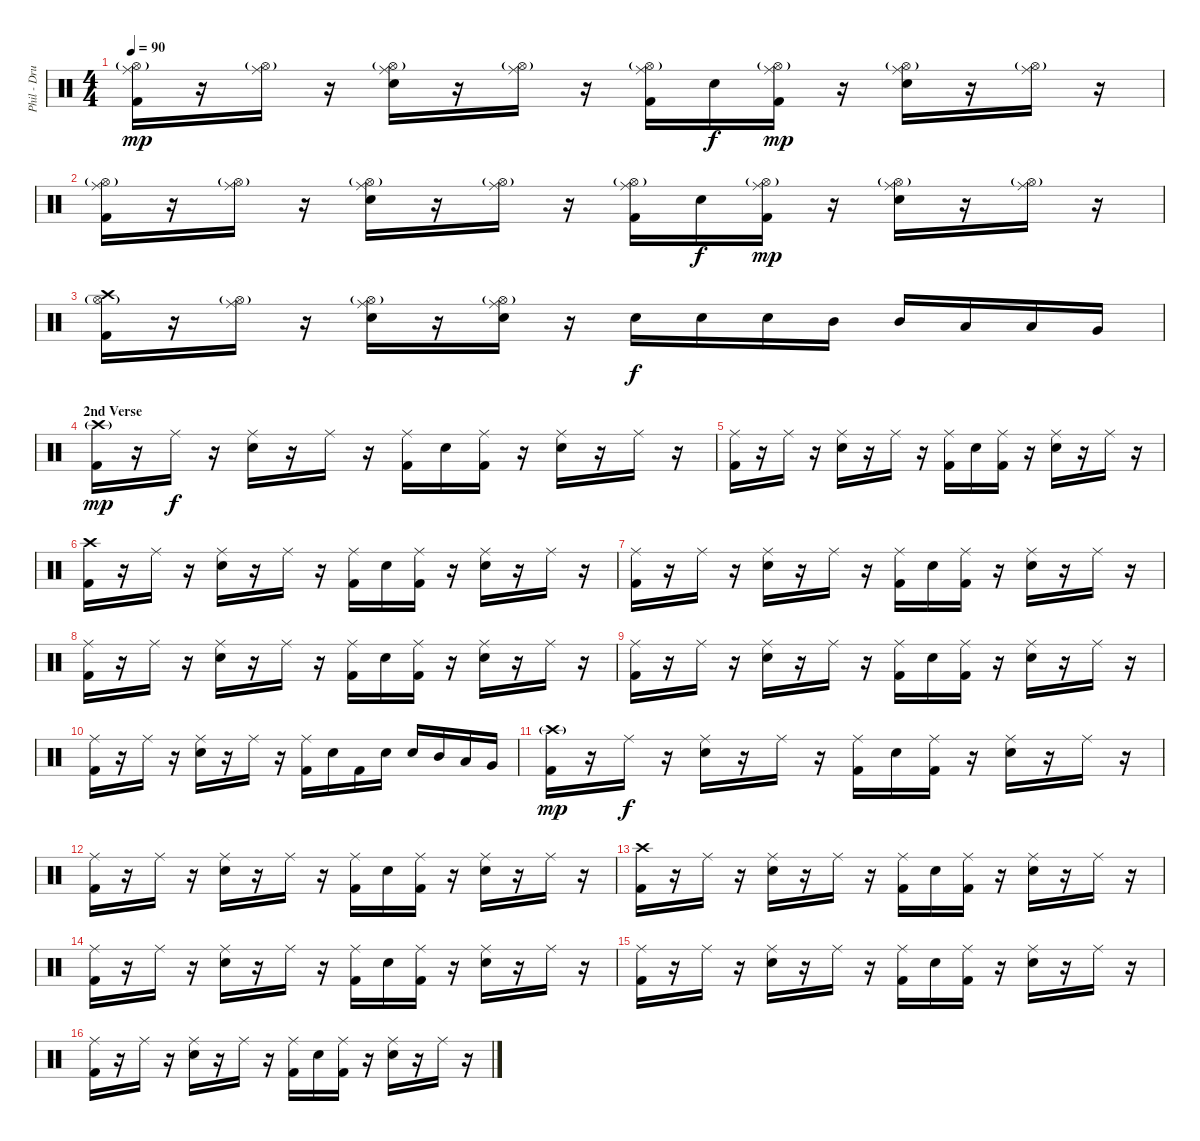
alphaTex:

\track ("Phil - Drums" "Phil - Dru") {instrument percussion}
\staff {score}
\articulation defaults
\ts (4 4)
\tempo 90
\clef neutral
\ks c
("Ride (middle)" "Kick (hit) 2" "Hi-Hat (open)"{g}).16{dy mp} r.16 ("Ride (middle)" "Hi-Hat (open)"{g}).16 r.16 ("Ride (middle)" "Electric Snare (hit)" "Hi-Hat (open)"{g}).16 r.16 ("Ride (middle)" "Hi-Hat (open)"{g}).16 r.16 ("Ride (middle)" "Kick (hit) 2" "Hi-Hat (open)"{g}).16 "Electric Snare (hit)".16{dy f} ("Ride (middle)" "Kick (hit) 2" "Hi-Hat (open)"{g}).16{dy mp} r.16 ("Ride (middle)" "Electric Snare (hit)" "Hi-Hat (open)"{g}).16 r.16 ("Ride (middle)" "Hi-Hat (open)"{g}).16 r.16 |
("Ride (middle)" "Kick (hit) 2" "Hi-Hat (open)"{g}).16 r.16 ("Ride (middle)" "Hi-Hat (open)"{g}).16 r.16 ("Ride (middle)" "Electric Snare (hit)" "Hi-Hat (open)"{g}).16 r.16 ("Ride (middle)" "Hi-Hat (open)"{g}).16 r.16 ("Ride (middle)" "Kick (hit) 2" "Hi-Hat (open)"{g}).16 "Electric Snare (hit)".16{dy f} ("Ride (middle)" "Kick (hit) 2" "Hi-Hat (open)"{g}).16{dy mp} r.16 ("Ride (middle)" "Electric Snare (hit)" "Hi-Hat (open)"{g}).16 r.16 ("Ride (middle)" "Hi-Hat (open)"{g}).16 r.16 |
("Crash high (hit)" "Kick (hit) 2" "Hi-Hat (open)"{g}).16 r.16 ("Ride (middle)" "Hi-Hat (open)"{g}).16 r.16 ("Ride (middle)" "Electric Snare (hit)" "Hi-Hat (open)"{g}).16 r.16 ("Ride (middle)" "Electric Snare (hit)" "Hi-Hat (open)"{g}).16 r.16 "Snare (hit) 2".16{dy f} "Snare (hit) 2".16 "Snare (hit) 2".16 "Mid Tom (hit)".16 "Mid Tom (hit)".16 "Low Tom (hit)".16 "Low Tom (hit)".16 "Very Low Tom (hit)".16 |
\section ("" "2nd Verse")
("Crash high (hit)"{g} "Kick (hit) 2").16{dy mp} r.16 "Ride (middle)".16{dy f} r.16 ("Ride (middle)" "Snare (hit) 2").16 r.16 "Ride (middle)".16 r.16 ("Ride (middle)" "Kick (hit) 2").16 "Snare (hit) 2".16 ("Ride (middle)" "Kick (hit) 2").16 r.16 ("Ride (middle)" "Snare (hit) 2").16 r.16 "Ride (middle)".16 r.16 |
("Ride (middle)" "Kick (hit) 2").16 r.16 "Ride (middle)".16 r.16 ("Ride (middle)" "Snare (hit) 2").16 r.16 "Ride (middle)".16 r.16 ("Ride (middle)" "Kick (hit) 2").16 "Snare (hit) 2".16 ("Ride (middle)" "Kick (hit) 2").16 r.16 ("Ride (middle)" "Snare (hit) 2").16 r.16 "Ride (middle)".16 r.16 |
("Crash high (hit)" "Kick (hit) 2").16 r.16 "Ride (middle)".16 r.16 ("Ride (middle)" "Snare (hit) 2").16 r.16 "Ride (middle)".16 r.16 ("Ride (middle)" "Kick (hit) 2").16 "Snare (hit) 2".16 ("Ride (middle)" "Kick (hit) 2").16 r.16 ("Ride (middle)" "Snare (hit) 2").16 r.16 "Ride (middle)".16 r.16 |
("Ride (middle)" "Kick (hit) 2").16 r.16 "Ride (middle)".16 r.16 ("Ride (middle)" "Snare (hit) 2").16 r.16 "Ride (middle)".16 r.16 ("Ride (middle)" "Kick (hit) 2").16 "Snare (hit) 2".16 ("Ride (middle)" "Kick (hit) 2").16 r.16 ("Ride (middle)" "Snare (hit) 2").16 r.16 "Ride (middle)".16 r.16 |
("Ride (middle)" "Kick (hit) 2").16 r.16 "Ride (middle)".16 r.16 ("Ride (middle)" "Snare (hit) 2").16 r.16 "Ride (middle)".16 r.16 ("Ride (middle)" "Kick (hit) 2").16 "Snare (hit) 2".16 ("Ride (middle)" "Kick (hit) 2").16 r.16 ("Ride (middle)" "Snare (hit) 2").16 r.16 "Ride (middle)".16 r.16 |
("Ride (middle)" "Kick (hit) 2").16 r.16 "Ride (middle)".16 r.16 ("Ride (middle)" "Snare (hit) 2").16 r.16 "Ride (middle)".16 r.16 ("Ride (middle)" "Kick (hit) 2").16 "Snare (hit) 2".16 ("Ride (middle)" "Kick (hit) 2").16 r.16 ("Ride (middle)" "Snare (hit) 2").16 r.16 "Ride (middle)".16 r.16 |
("Ride (middle)" "Kick (hit) 2").16 r.16 "Ride (middle)".16 r.16 ("Ride (middle)" "Snare (hit) 2").16 r.16 "Ride (middle)".16 r.16 ("Ride (middle)" "Kick (hit) 2").16 "Snare (hit) 2".16 "Kick (hit) 2".16 "Snare (hit) 2".16 "Snare (hit) 2".16 "Mid Tom (hit)".16 "Low Tom (hit)".16 "Very Low Tom (hit)".16 |
("Crash high (hit)"{g} "Kick (hit) 2").16{dy mp} r.16 "Ride (middle)".16{dy f} r.16 ("Ride (middle)" "Snare (hit) 2").16 r.16 "Ride (middle)".16 r.16 ("Ride (middle)" "Kick (hit) 2").16 "Snare (hit) 2".16 ("Ride (middle)" "Kick (hit) 2").16 r.16 ("Ride (middle)" "Snare (hit) 2").16 r.16 "Ride (middle)".16 r.16 |
("Ride (middle)" "Kick (hit) 2").16 r.16 "Ride (middle)".16 r.16 ("Ride (middle)" "Snare (hit) 2").16 r.16 "Ride (middle)".16 r.16 ("Ride (middle)" "Kick (hit) 2").16 "Snare (hit) 2".16 ("Ride (middle)" "Kick (hit) 2").16 r.16 ("Ride (middle)" "Snare (hit) 2").16 r.16 "Ride (middle)".16 r.16 |
("Crash high (hit)" "Kick (hit) 2").16 r.16 "Ride (middle)".16 r.16 ("Ride (middle)" "Snare (hit) 2").16 r.16 "Ride (middle)".16 r.16 ("Ride (middle)" "Kick (hit) 2").16 "Snare (hit) 2".16 ("Ride (middle)" "Kick (hit) 2").16 r.16 ("Ride (middle)" "Snare (hit) 2").16 r.16 "Ride (middle)".16 r.16 |
("Ride (middle)" "Kick (hit) 2").16 r.16 "Ride (middle)".16 r.16 ("Ride (middle)" "Snare (hit) 2").16 r.16 "Ride (middle)".16 r.16 ("Ride (middle)" "Kick (hit) 2").16 "Snare (hit) 2".16 ("Ride (middle)" "Kick (hit) 2").16 r.16 ("Ride (middle)" "Snare (hit) 2").16 r.16 "Ride (middle)".16 r.16 |
("Ride (middle)" "Kick (hit) 2").16 r.16 "Ride (middle)".16 r.16 ("Ride (middle)" "Snare (hit) 2").16 r.16 "Ride (middle)".16 r.16 ("Ride (middle)" "Kick (hit) 2").16 "Snare (hit) 2".16 ("Ride (middle)" "Kick (hit) 2").16 r.16 ("Ride (middle)" "Snare (hit) 2").16 r.16 "Ride (middle)".16 r.16 |
("Ride (middle)" "Kick (hit) 2").16 r.16 "Ride (middle)".16 r.16 ("Ride (middle)" "Snare (hit) 2").16 r.16 "Ride (middle)".16 r.16 ("Ride (middle)" "Kick (hit) 2").16 "Snare (hit) 2".16 ("Ride (middle)" "Kick (hit) 2").16 r.16 ("Ride (middle)" "Snare (hit) 2").16 r.16 "Ride (middle)".16 r.16
